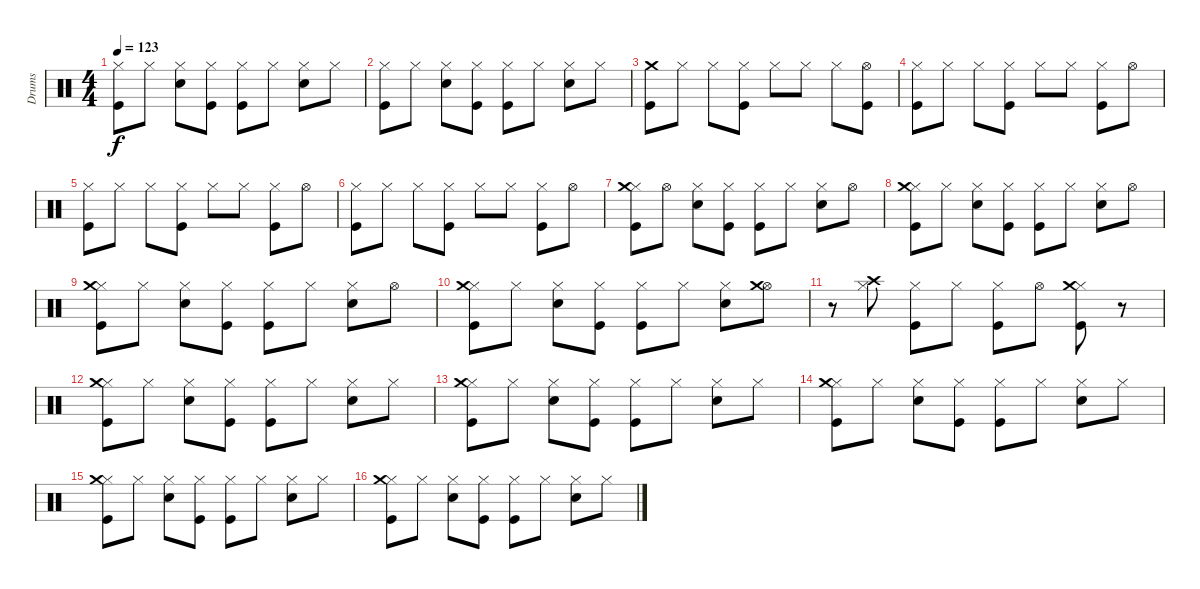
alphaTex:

\track ("Drums" "Drums") {instrument percussion}
\staff {score}
\articulation defaults
\ts (4 4)
\tempo 123
\clef neutral
\ks c
("Hi-Hat (closed)" "Kick (hit)").8{dy f} "Hi-Hat (closed)".8 ("Hi-Hat (closed)" "Snare (hit) 2").8 ("Hi-Hat (closed)" "Kick (hit)").8 ("Hi-Hat (closed)" "Kick (hit)").8 "Hi-Hat (closed)".8 ("Hi-Hat (closed)" "Snare (hit) 2").8 "Hi-Hat (closed)".8 |
("Hi-Hat (closed)" "Kick (hit)").8 "Hi-Hat (closed)".8 ("Hi-Hat (closed)" "Snare (hit) 2").8 ("Hi-Hat (closed)" "Kick (hit)").8 ("Hi-Hat (closed)" "Kick (hit)").8 "Hi-Hat (closed)".8 ("Hi-Hat (closed)" "Snare (hit) 2").8 "Hi-Hat (closed)".8 |
("Crash medium (hit)" "Kick (hit)").8 "Hi-Hat (closed)".8 "Hi-Hat (closed)".8 ("Hi-Hat (closed)" "Kick (hit)").8 "Hi-Hat (closed)".8 "Hi-Hat (closed)".8 "Hi-Hat (closed)".8 ("Hi-Hat (open)" "Kick (hit)").8 |
("Hi-Hat (closed)" "Kick (hit)").8 "Hi-Hat (closed)".8 "Hi-Hat (closed)".8 ("Hi-Hat (closed)" "Kick (hit)").8 "Hi-Hat (closed)".8 "Hi-Hat (closed)".8 ("Hi-Hat (closed)" "Kick (hit)").8 "Hi-Hat (open)".8 |
("Hi-Hat (closed)" "Kick (hit)").8 "Hi-Hat (closed)".8 "Hi-Hat (closed)".8 ("Hi-Hat (closed)" "Kick (hit)").8 "Hi-Hat (closed)".8 "Hi-Hat (closed)".8 ("Hi-Hat (closed)" "Kick (hit)").8 "Hi-Hat (open)".8 |
("Hi-Hat (closed)" "Kick (hit)").8 "Hi-Hat (closed)".8 "Hi-Hat (closed)".8 ("Hi-Hat (closed)" "Kick (hit)").8 "Hi-Hat (closed)".8 "Hi-Hat (closed)".8 ("Hi-Hat (closed)" "Kick (hit)").8 "Hi-Hat (open)".8 |
("Hi-Hat (closed)" "Crash medium (hit)" "Kick (hit)").8 "Hi-Hat (open)".8 ("Hi-Hat (closed)" "Snare (hit) 2").8 ("Hi-Hat (closed)" "Kick (hit)").8 ("Hi-Hat (closed)" "Kick (hit)").8 "Hi-Hat (closed)".8 ("Hi-Hat (closed)" "Snare (hit) 2").8 "Hi-Hat (open)".8 |
("Hi-Hat (closed)" "Crash medium (hit)" "Kick (hit)").8 "Hi-Hat (closed)".8 ("Hi-Hat (closed)" "Snare (hit) 2").8 ("Hi-Hat (closed)" "Kick (hit)").8 ("Hi-Hat (closed)" "Kick (hit)").8 "Hi-Hat (closed)".8 ("Hi-Hat (closed)" "Snare (hit) 2").8 "Hi-Hat (open)".8 |
("Hi-Hat (closed)" "Crash medium (hit)" "Kick (hit)").8 "Hi-Hat (closed)".8 ("Hi-Hat (closed)" "Snare (hit) 2").8 ("Hi-Hat (closed)" "Kick (hit)").8 ("Hi-Hat (closed)" "Kick (hit)").8 "Hi-Hat (closed)".8 ("Hi-Hat (closed)" "Snare (hit) 2").8 "Hi-Hat (open)".8 |
("Hi-Hat (closed)" "Crash medium (hit)" "Kick (hit)").8 "Hi-Hat (closed)".8 ("Hi-Hat (closed)" "Snare (hit) 2").8 ("Hi-Hat (closed)" "Kick (hit)").8 ("Hi-Hat (closed)" "Kick (hit)").8 "Hi-Hat (closed)".8 ("Hi-Hat (closed)" "Snare (hit) 2").8 ("Hi-Hat (open)" "Crash medium (hit)").8 |
r.8 ("Hi-Hat (closed)" "Crash high (hit)").8 ("Hi-Hat (closed)" "Kick (hit)").8 "Hi-Hat (closed)".8 ("Hi-Hat (closed)" "Kick (hit)").8 "Hi-Hat (open)".8 ("Hi-Hat (closed)" "Crash medium (hit)" "Kick (hit)").8 r.8 |
("Hi-Hat (closed)" "Crash medium (hit)" "Kick (hit)").8 "Hi-Hat (closed)".8 ("Hi-Hat (closed)" "Snare (hit) 2").8 ("Hi-Hat (closed)" "Kick (hit)").8 ("Hi-Hat (closed)" "Kick (hit)").8 "Hi-Hat (closed)".8 ("Hi-Hat (closed)" "Snare (hit) 2").8 "Hi-Hat (closed)".8 |
("Hi-Hat (closed)" "Crash medium (hit)" "Kick (hit)").8 "Hi-Hat (closed)".8 ("Hi-Hat (closed)" "Snare (hit) 2").8 ("Hi-Hat (closed)" "Kick (hit)").8 ("Hi-Hat (closed)" "Kick (hit)").8 "Hi-Hat (closed)".8 ("Hi-Hat (closed)" "Snare (hit) 2").8 "Hi-Hat (closed)".8 |
("Hi-Hat (closed)" "Crash medium (hit)" "Kick (hit)").8 "Hi-Hat (closed)".8 ("Hi-Hat (closed)" "Snare (hit) 2").8 ("Hi-Hat (closed)" "Kick (hit)").8 ("Hi-Hat (closed)" "Kick (hit)").8 "Hi-Hat (closed)".8 ("Hi-Hat (closed)" "Snare (hit) 2").8 "Hi-Hat (closed)".8 |
("Hi-Hat (closed)" "Crash medium (hit)" "Kick (hit)").8 "Hi-Hat (closed)".8 ("Hi-Hat (closed)" "Snare (hit) 2").8 ("Hi-Hat (closed)" "Kick (hit)").8 ("Hi-Hat (closed)" "Kick (hit)").8 "Hi-Hat (closed)".8 ("Hi-Hat (closed)" "Snare (hit) 2").8 "Hi-Hat (closed)".8 |
("Hi-Hat (closed)" "Crash medium (hit)" "Kick (hit)").8 "Hi-Hat (closed)".8 ("Hi-Hat (closed)" "Snare (hit) 2").8 ("Hi-Hat (closed)" "Kick (hit)").8 ("Hi-Hat (closed)" "Kick (hit)").8 "Hi-Hat (closed)".8 ("Hi-Hat (closed)" "Snare (hit) 2").8 "Hi-Hat (closed)".8
